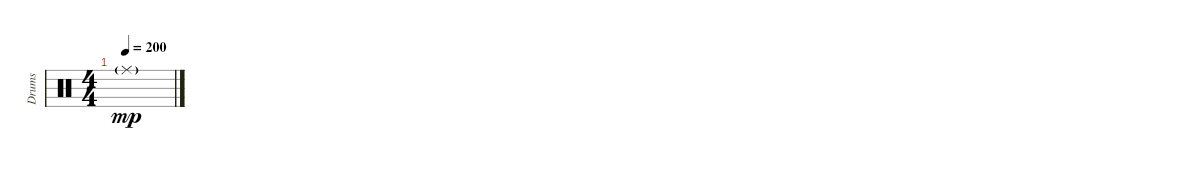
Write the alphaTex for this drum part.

\track ("Drums" "Drums") {instrument percussion}
\staff {score}
\articulation defaults
\ts (4 4)
\tempo 200
\clef neutral
\ks c "Ride (middle)"{g}.1{dy mp volume 0}
